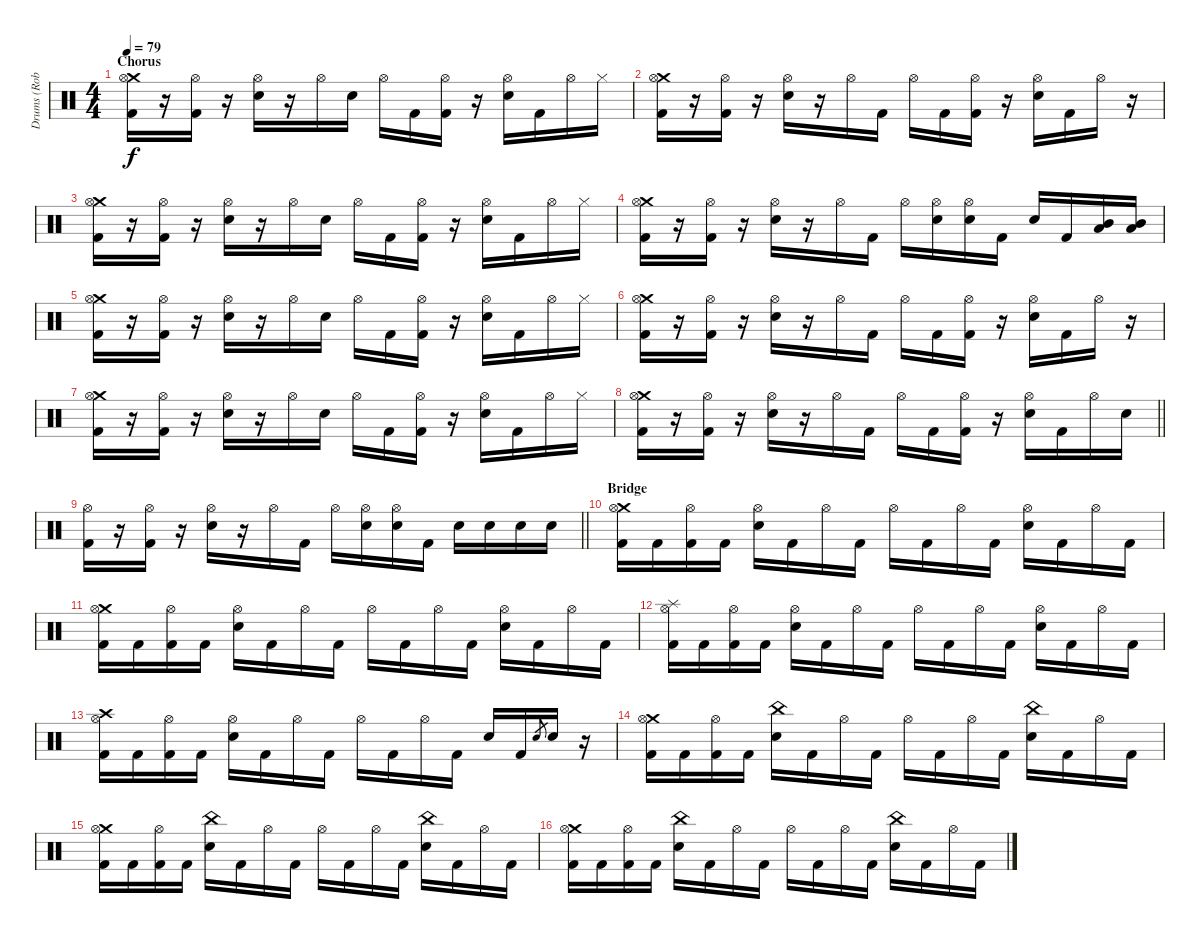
\track ("Drums (Rob Bourdon)" "Drums (Rob") {instrument percussion}
\staff {score}
\articulation defaults
\ts (4 4)
\section ("" "Chorus")
\tempo 79
\clef neutral
\ks c
("Crash medium (hit)" "Hi-Hat (open)" "Kick (hit) 2").16{dy f} r.16 ("Hi-Hat (open)" "Kick (hit) 2").16 r.16 ("Hi-Hat (open)" "Electric Snare (hit)").16 r.16 "Hi-Hat (open)".16 "Electric Snare (hit)".16 "Hi-Hat (open)".16 "Kick (hit) 2".16 ("Hi-Hat (open)" "Kick (hit) 2").16 r.16 ("Hi-Hat (open)" "Electric Snare (hit)").16 "Kick (hit) 2".16 "Hi-Hat (open)".16 "Hi-Hat (closed)".16 |
("Crash medium (hit)" "Hi-Hat (open)" "Kick (hit) 2").16 r.16 ("Hi-Hat (open)" "Kick (hit) 2").16 r.16 ("Hi-Hat (open)" "Electric Snare (hit)").16 r.16 "Hi-Hat (open)".16 "Kick (hit) 2".16 "Hi-Hat (open)".16 "Kick (hit) 2".16 ("Hi-Hat (open)" "Kick (hit) 2").16 r.16 ("Hi-Hat (open)" "Electric Snare (hit)").16 "Kick (hit) 2".16 "Hi-Hat (open)".16 r.16 |
("Crash medium (hit)" "Hi-Hat (open)" "Kick (hit) 2").16 r.16 ("Hi-Hat (open)" "Kick (hit) 2").16 r.16 ("Hi-Hat (open)" "Electric Snare (hit)").16 r.16 "Hi-Hat (open)".16 "Electric Snare (hit)".16 "Hi-Hat (open)".16 "Kick (hit) 2".16 ("Hi-Hat (open)" "Kick (hit) 2").16 r.16 ("Hi-Hat (open)" "Electric Snare (hit)").16 "Kick (hit) 2".16 "Hi-Hat (open)".16 "Hi-Hat (closed)".16 |
("Crash medium (hit)" "Hi-Hat (open)" "Kick (hit) 2").16 r.16 ("Hi-Hat (open)" "Kick (hit) 2").16 r.16 ("Hi-Hat (open)" "Electric Snare (hit)").16 r.16 "Hi-Hat (open)".16 "Kick (hit) 2".16 "Hi-Hat (open)".16 ("Hi-Hat (open)" "Electric Snare (hit)").16 ("Hi-Hat (open)" "Electric Snare (hit)").16 "Kick (hit) 2".16 "Electric Snare (hit)".16 "Kick (hit) 2".16 ("Mid Tom (hit)" "Low Tom (hit)").16 ("Mid Tom (hit)" "Low Tom (hit)").16 |
("Crash medium (hit)" "Hi-Hat (open)" "Kick (hit) 2").16 r.16 ("Hi-Hat (open)" "Kick (hit) 2").16 r.16 ("Hi-Hat (open)" "Electric Snare (hit)").16 r.16 "Hi-Hat (open)".16 "Electric Snare (hit)".16 "Hi-Hat (open)".16 "Kick (hit) 2".16 ("Hi-Hat (open)" "Kick (hit) 2").16 r.16 ("Hi-Hat (open)" "Electric Snare (hit)").16 "Kick (hit) 2".16 "Hi-Hat (open)".16 "Hi-Hat (closed)".16 |
("Crash medium (hit)" "Hi-Hat (open)" "Kick (hit) 2").16 r.16 ("Hi-Hat (open)" "Kick (hit) 2").16 r.16 ("Hi-Hat (open)" "Electric Snare (hit)").16 r.16 "Hi-Hat (open)".16 "Kick (hit) 2".16 "Hi-Hat (open)".16 "Kick (hit) 2".16 ("Hi-Hat (open)" "Kick (hit) 2").16 r.16 ("Hi-Hat (open)" "Electric Snare (hit)").16 "Kick (hit) 2".16 "Hi-Hat (open)".16 r.16 |
("Crash medium (hit)" "Hi-Hat (open)" "Kick (hit) 2").16 r.16 ("Hi-Hat (open)" "Kick (hit) 2").16 r.16 ("Hi-Hat (open)" "Electric Snare (hit)").16 r.16 "Hi-Hat (open)".16 "Electric Snare (hit)".16 "Hi-Hat (open)".16 "Kick (hit) 2".16 ("Hi-Hat (open)" "Kick (hit) 2").16 r.16 ("Hi-Hat (open)" "Electric Snare (hit)").16 "Kick (hit) 2".16 "Hi-Hat (open)".16 "Hi-Hat (closed)".16 |
\barLineRight lightlight
("Crash medium (hit)" "Hi-Hat (open)" "Kick (hit) 2").16 r.16 ("Hi-Hat (open)" "Kick (hit) 2").16 r.16 ("Hi-Hat (open)" "Electric Snare (hit)").16 r.16 "Hi-Hat (open)".16 "Kick (hit) 2".16 "Hi-Hat (open)".16 "Kick (hit) 2".16 ("Hi-Hat (open)" "Kick (hit) 2").16 r.16 ("Hi-Hat (open)" "Electric Snare (hit)").16 "Kick (hit) 2".16 "Hi-Hat (open)".16 "Electric Snare (hit)".16 |
\barLineRight lightlight
("Hi-Hat (open)" "Kick (hit) 2").16 r.16 ("Hi-Hat (open)" "Kick (hit) 2").16 r.16 ("Hi-Hat (open)" "Electric Snare (hit)").16 r.16 "Hi-Hat (open)".16 "Kick (hit) 2".16 "Hi-Hat (open)".16 ("Hi-Hat (open)" "Electric Snare (hit)").16 ("Hi-Hat (open)" "Electric Snare (hit)").16 "Kick (hit) 2".16 "Electric Snare (hit)".16 "Electric Snare (hit)".16 "Electric Snare (hit)".16 "Electric Snare (hit)".16 |
\section ("" "Bridge")
("Crash medium (hit)" "Hi-Hat (open)" "Kick (hit) 2").16 "Kick (hit) 2".16 ("Hi-Hat (open)" "Kick (hit) 2").16 "Kick (hit) 2".16 ("Hi-Hat (open)" "Electric Snare (hit)").16 "Kick (hit) 2".16 "Hi-Hat (open)".16 "Kick (hit) 2".16 "Hi-Hat (open)".16 "Kick (hit) 2".16 "Hi-Hat (open)".16 "Kick (hit) 2".16 ("Hi-Hat (open)" "Electric Snare (hit)").16 "Kick (hit) 2".16 "Hi-Hat (open)".16 "Kick (hit) 2".16 |
("Crash medium (hit)" "Hi-Hat (open)" "Kick (hit) 2").16 "Kick (hit) 2".16 ("Hi-Hat (open)" "Kick (hit) 2").16 "Kick (hit) 2".16 ("Hi-Hat (open)" "Electric Snare (hit)").16 "Kick (hit) 2".16 "Hi-Hat (open)".16 "Kick (hit) 2".16 "Hi-Hat (open)".16 "Kick (hit) 2".16 "Hi-Hat (open)".16 "Kick (hit) 2".16 ("Hi-Hat (open)" "Electric Snare (hit)").16 "Kick (hit) 2".16 "Hi-Hat (open)".16 "Kick (hit) 2".16 |
("Splash (hit)" "Hi-Hat (open)" "Kick (hit) 2").16 "Kick (hit) 2".16 ("Hi-Hat (open)" "Kick (hit) 2").16 "Kick (hit) 2".16 ("Hi-Hat (open)" "Electric Snare (hit)").16 "Kick (hit) 2".16 "Hi-Hat (open)".16 "Kick (hit) 2".16 "Hi-Hat (open)".16 "Kick (hit) 2".16 "Hi-Hat (open)".16 "Kick (hit) 2".16 ("Hi-Hat (open)" "Electric Snare (hit)").16 "Kick (hit) 2".16 "Hi-Hat (open)".16 "Kick (hit) 2".16 |
("Crash high (hit)" "Hi-Hat (open)" "Kick (hit) 2").16 "Kick (hit) 2".16 ("Hi-Hat (open)" "Kick (hit) 2").16 "Kick (hit) 2".16 ("Hi-Hat (open)" "Electric Snare (hit)").16 "Kick (hit) 2".16 "Hi-Hat (open)".16 "Kick (hit) 2".16 "Hi-Hat (open)".16 "Kick (hit) 2".16 "Hi-Hat (open)".16 "Kick (hit) 2".16 "Electric Snare (hit)".16 "Kick (hit) 2".16 "Electric Snare (hit)".8{gr} "Electric Snare (hit)".16 r.16 |
("Crash medium (hit)" "Hi-Hat (open)" "Kick (hit) 2").16 "Kick (hit) 2".16 ("Hi-Hat (open)" "Kick (hit) 2").16 "Kick (hit) 2".16 ("China (hit)" "Electric Snare (hit)").16 "Kick (hit) 2".16 "Hi-Hat (open)".16 "Kick (hit) 2".16 "Hi-Hat (open)".16 "Kick (hit) 2".16 "Hi-Hat (open)".16 "Kick (hit) 2".16 ("China (hit)" "Electric Snare (hit)").16 "Kick (hit) 2".16 "Hi-Hat (open)".16 "Kick (hit) 2".16 |
("Crash medium (hit)" "Hi-Hat (open)" "Kick (hit) 2").16 "Kick (hit) 2".16 ("Hi-Hat (open)" "Kick (hit) 2").16 "Kick (hit) 2".16 ("China (hit)" "Electric Snare (hit)").16 "Kick (hit) 2".16 "Hi-Hat (open)".16 "Kick (hit) 2".16 "Hi-Hat (open)".16 "Kick (hit) 2".16 "Hi-Hat (open)".16 "Kick (hit) 2".16 ("China (hit)" "Electric Snare (hit)").16 "Kick (hit) 2".16 "Hi-Hat (open)".16 "Kick (hit) 2".16 |
("Crash medium (hit)" "Hi-Hat (open)" "Kick (hit) 2").16 "Kick (hit) 2".16 ("Hi-Hat (open)" "Kick (hit) 2").16 "Kick (hit) 2".16 ("China (hit)" "Electric Snare (hit)").16 "Kick (hit) 2".16 "Hi-Hat (open)".16 "Kick (hit) 2".16 "Hi-Hat (open)".16 "Kick (hit) 2".16 "Hi-Hat (open)".16 "Kick (hit) 2".16 ("China (hit)" "Electric Snare (hit)").16 "Kick (hit) 2".16 "Hi-Hat (open)".16 "Kick (hit) 2".16
